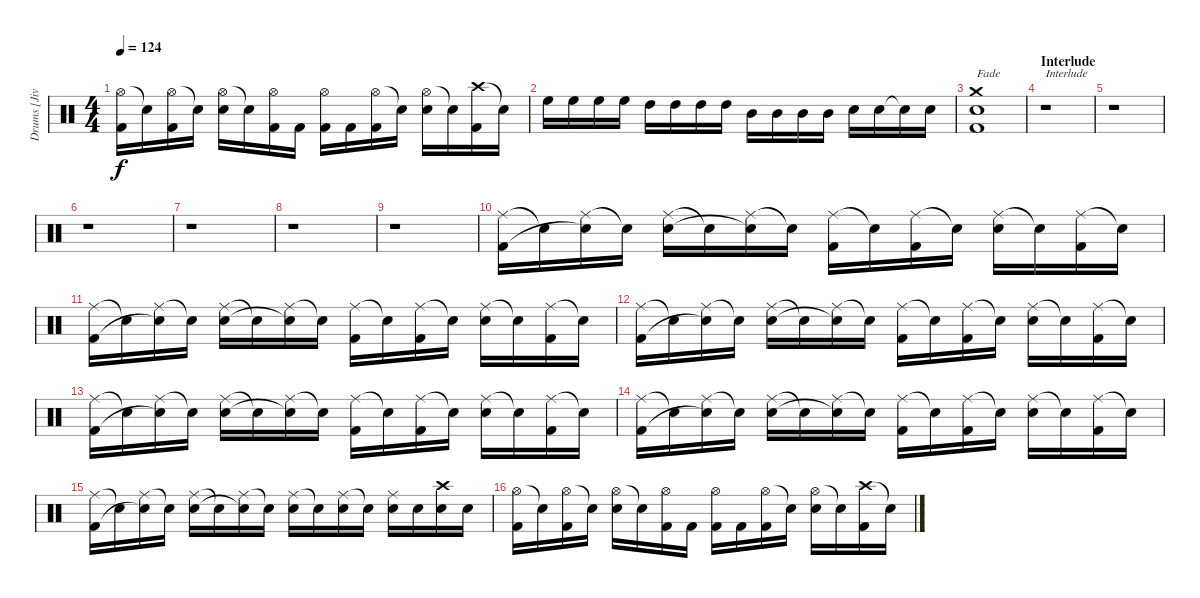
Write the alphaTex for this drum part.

\track ("Drums [Jivarp]" "Drums [Jiv") {instrument percussion}
\staff {score}
\articulation defaults
\ts (4 4)
\tempo 124
\clef neutral
\ks c
("Hi-Hat (open)" "Kick (hit) 2").16{dy f} "Snare (hit)"{t}.16 ("Hi-Hat (open)" "Kick (hit) 2").16 "Snare (hit)"{t}.16 ("Hi-Hat (open)" "Electric Snare (hit)").16 "Snare (hit)"{t}.16 ("Hi-Hat (open)" "Kick (hit) 2").16 "Kick (hit) 2".16 ("Hi-Hat (open)" "Kick (hit) 2").16 "Kick (hit) 2".16 ("Hi-Hat (open)" "Kick (hit) 2").16 "Snare (hit)"{t}.16 ("Hi-Hat (open)" "Electric Snare (hit)").16 "Snare (hit)"{t}.16 ("Crash high (hit)" "Kick (hit) 2").16 "Snare (hit)"{t}.16 |
"High Floor Tom (hit)".16 "High Floor Tom (hit)".16 "High Floor Tom (hit)".16 "High Floor Tom (hit)".16 "High Tom (hit)".16 "High Tom (hit)".16 "High Tom (hit)".16 "High Tom (hit)".16 "Mid Tom (hit)".16 "Mid Tom (hit)".16 "Mid Tom (hit)".16 "Mid Tom (hit)".16 "Electric Snare (hit)".16 "Electric Snare (hit)".16 "Snare (hit)"{t}.16 "Electric Snare (hit)".16 |
("Crash medium (hit)" "Electric Snare (hit)" "Kick (hit) 2").1{txt "Fade"} |
\section ("" "Interlude")
r.1{txt "Interlude"} |
r.1 |
r.1 |
r.1 |
r.1 |
r.1 |
("Ride (middle)" "Kick (hit) 2").16 "Snare (hit)"{t}.16 ("Ride (middle)" "Snare (hit)"{t}).16 "Snare (hit)"{t}.16 ("Ride (middle)" "Electric Snare (hit)").16 "Snare (hit)"{t}.16 ("Ride (middle)" "Snare (hit)"{t}).16 "Snare (hit)"{t}.16 ("Ride (middle)" "Kick (hit) 2").16 "Snare (hit)"{t}.16 ("Ride (middle)" "Kick (hit) 2").16 "Snare (hit)"{t}.16 ("Ride (middle)" "Electric Snare (hit)").16 "Snare (hit)"{t}.16 ("Ride (middle)" "Kick (hit) 2").16 "Snare (hit)"{t}.16 |
("Ride (middle)" "Kick (hit) 2").16 "Snare (hit)"{t}.16 ("Ride (middle)" "Snare (hit)"{t}).16 "Snare (hit)"{t}.16 ("Ride (middle)" "Electric Snare (hit)").16 "Snare (hit)"{t}.16 ("Ride (middle)" "Snare (hit)"{t}).16 "Snare (hit)"{t}.16 ("Ride (middle)" "Kick (hit) 2").16 "Snare (hit)"{t}.16 ("Ride (middle)" "Kick (hit) 2").16 "Snare (hit)"{t}.16 ("Ride (middle)" "Electric Snare (hit)").16 "Snare (hit)"{t}.16 ("Ride (middle)" "Kick (hit) 2").16 "Snare (hit)"{t}.16 |
("Ride (middle)" "Kick (hit) 2").16 "Snare (hit)"{t}.16 ("Ride (middle)" "Snare (hit)"{t}).16 "Snare (hit)"{t}.16 ("Ride (middle)" "Electric Snare (hit)").16 "Snare (hit)"{t}.16 ("Ride (middle)" "Snare (hit)"{t}).16 "Snare (hit)"{t}.16 ("Ride (middle)" "Kick (hit) 2").16 "Snare (hit)"{t}.16 ("Ride (middle)" "Kick (hit) 2").16 "Snare (hit)"{t}.16 ("Ride (middle)" "Electric Snare (hit)").16 "Snare (hit)"{t}.16 ("Ride (middle)" "Kick (hit) 2").16 "Snare (hit)"{t}.16 |
("Ride (middle)" "Kick (hit) 2").16 "Snare (hit)"{t}.16 ("Ride (middle)" "Snare (hit)"{t}).16 "Snare (hit)"{t}.16 ("Ride (middle)" "Electric Snare (hit)").16 "Snare (hit)"{t}.16 ("Ride (middle)" "Snare (hit)"{t}).16 "Snare (hit)"{t}.16 ("Ride (middle)" "Kick (hit) 2").16 "Snare (hit)"{t}.16 ("Ride (middle)" "Kick (hit) 2").16 "Snare (hit)"{t}.16 ("Ride (middle)" "Electric Snare (hit)").16 "Snare (hit)"{t}.16 ("Ride (middle)" "Kick (hit) 2").16 "Snare (hit)"{t}.16 |
("Ride (middle)" "Kick (hit) 2").16 "Snare (hit)"{t}.16 ("Ride (middle)" "Snare (hit)"{t}).16 "Snare (hit)"{t}.16 ("Ride (middle)" "Electric Snare (hit)").16 "Snare (hit)"{t}.16 ("Ride (middle)" "Snare (hit)"{t}).16 "Snare (hit)"{t}.16 ("Ride (middle)" "Kick (hit) 2").16 "Snare (hit)"{t}.16 ("Ride (middle)" "Kick (hit) 2").16 "Snare (hit)"{t}.16 ("Ride (middle)" "Electric Snare (hit)").16 "Snare (hit)"{t}.16 ("Ride (middle)" "Kick (hit) 2").16 "Snare (hit)"{t}.16 |
("Ride (middle)" "Kick (hit) 2").16 "Snare (hit)"{t}.16 ("Ride (middle)" "Snare (hit)"{t}).16 "Snare (hit)"{t}.16 ("Ride (middle)" "Electric Snare (hit)").16 "Snare (hit)"{t}.16 ("Ride (middle)" "Snare (hit)"{t}).16 "Snare (hit)"{t}.16 ("Ride (middle)" "Electric Snare (hit)").16 "Snare (hit)"{t}.16 ("Ride (middle)" "Electric Snare (hit)").16 "Snare (hit)"{t}.16 ("Ride (middle)" "Electric Snare (hit)").16 "Electric Snare (hit)".16 ("Crash high (hit)" "Electric Snare (hit)").16 "Electric Snare (hit)".16 |
("Hi-Hat (open)" "Kick (hit) 2").16 "Snare (hit)"{t}.16 ("Hi-Hat (open)" "Kick (hit) 2").16 "Snare (hit)"{t}.16 ("Hi-Hat (open)" "Electric Snare (hit)").16 "Snare (hit)"{t}.16 ("Hi-Hat (open)" "Kick (hit) 2").16 "Kick (hit) 2".16 ("Hi-Hat (open)" "Kick (hit) 2").16 "Kick (hit) 2".16 ("Hi-Hat (open)" "Kick (hit) 2").16 "Snare (hit)"{t}.16 ("Hi-Hat (open)" "Electric Snare (hit)").16 "Snare (hit)"{t}.16 ("Crash high (hit)" "Kick (hit) 2").16 "Snare (hit)"{t}.16
